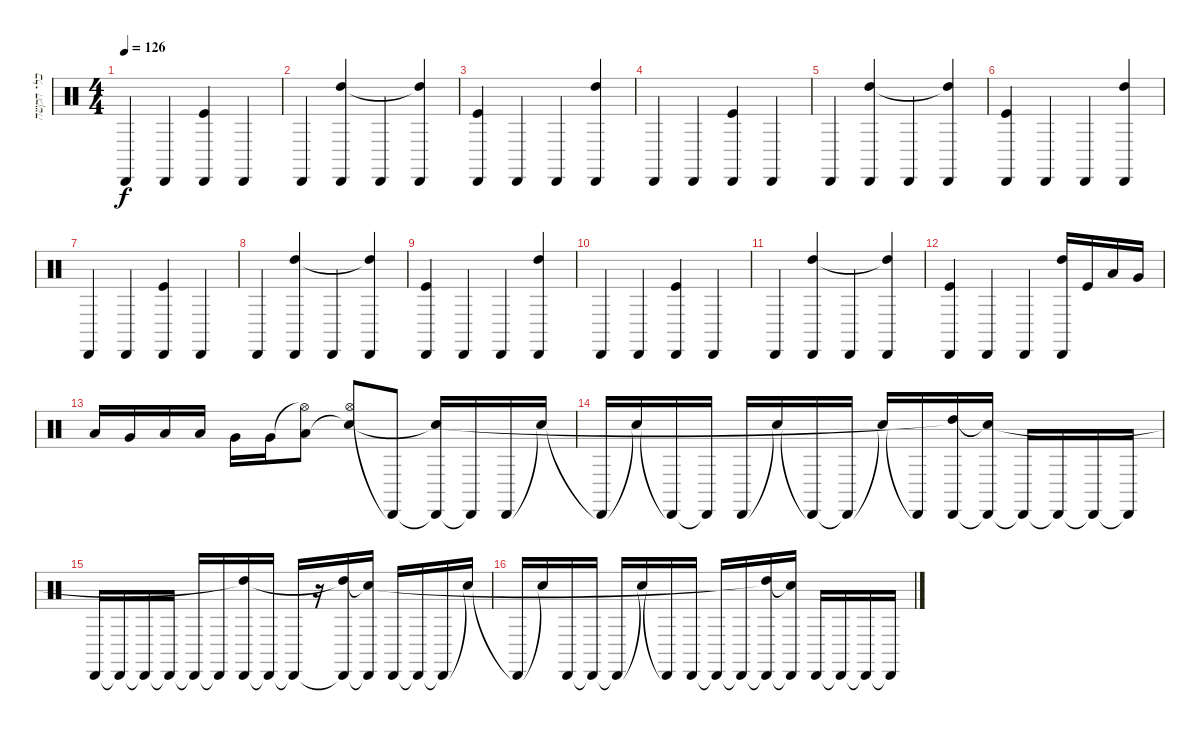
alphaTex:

\track ("כלי הקשה" "כלי הקשה") {instrument percussion}
\staff {score}
\articulation defaults
\ts (4 4)
\tempo 126
\clef neutral
\ks c "Cabasa (hit)".4{dy f} "Cabasa (hit)".4
("Cabasa (hit)" "Kick (hit)").4 "Cabasa (hit)".4 |
"Cabasa (hit)".4 ("Cabasa (hit)" "High Tom (hit)").4 "Cabasa (hit)".4 ("Cabasa (hit)" "High Tom (hit)"{t}).4 |
("Cabasa (hit)" "Kick (hit)").4 "Cabasa (hit)".4 "Cabasa (hit)".4 ("Cabasa (hit)" "High Tom (hit)").4 |
"Cabasa (hit)".4 "Cabasa (hit)".4 ("Cabasa (hit)" "Kick (hit)").4 "Cabasa (hit)".4 |
"Cabasa (hit)".4 ("Cabasa (hit)" "High Tom (hit)").4 "Cabasa (hit)".4 ("Cabasa (hit)" "High Tom (hit)"{t}).4 |
("Cabasa (hit)" "Kick (hit)").4 "Cabasa (hit)".4 "Cabasa (hit)".4 ("Cabasa (hit)" "High Tom (hit)").4 |
"Cabasa (hit)".4 "Cabasa (hit)".4 ("Cabasa (hit)" "Kick (hit)").4 "Cabasa (hit)".4 |
"Cabasa (hit)".4 ("Cabasa (hit)" "High Tom (hit)").4 "Cabasa (hit)".4 ("Cabasa (hit)" "High Tom (hit)"{t}).4 |
("Cabasa (hit)" "Kick (hit)").4 "Cabasa (hit)".4 "Cabasa (hit)".4 ("Cabasa (hit)" "High Tom (hit)").4 |
"Cabasa (hit)".4 "Cabasa (hit)".4 ("Cabasa (hit)" "Kick (hit)").4 "Cabasa (hit)".4 |
"Cabasa (hit)".4 ("Cabasa (hit)" "High Tom (hit)").4 "Cabasa (hit)".4 ("Cabasa (hit)" "High Tom (hit)"{t}).4 |
("Cabasa (hit)" "Kick (hit)").4 "Cabasa (hit)".4 "Cabasa (hit)".4 ("Cabasa (hit)" "High Tom (hit)").16 "Kick (hit)".16 "Low Tom (hit)".16 "Very Low Tom (hit)".16 |
"Low Tom (hit)".16 "Very Low Tom (hit)".16 "Low Floor Tom (hit)".16 "Low Floor Tom (hit)".16 "Very Low Tom (hit)".16 "Very Low Tom (hit)".16 ("Hi-Hat (open)"{t} "Low Floor Tom (hit)").8 ("Hi-Hat (open)" "Snare (hit)"{t}).8 "Cabasa (hit)"{t}.8 ("Cabasa (hit)"{t} "Snare (hit)"{t}).16 "Cabasa (hit)"{t}.16 "Cabasa (hit)".16 "Snare (hit)"{t}.16 |
"Cabasa (hit)"{t}.16 "Snare (hit)"{t}.16 "Cabasa (hit)"{t}.16 "Cabasa (hit)"{t}.16 "Cabasa (hit)".16 "Snare (hit)"{t}.16 "Cabasa (hit)"{t}.16 "Cabasa (hit)"{t}.16 "Snare (hit)"{t}.16 "Cabasa (hit)"{t}.16 ("Cabasa (hit)" "High Tom (hit)"{t}).16 ("Cabasa (hit)"{t} "Snare (hit)"{t}).16 "Cabasa (hit)"{t}.16 "Cabasa (hit)"{t}.16 "Cabasa (hit)"{t}.16 "Cabasa (hit)"{t}.16 |
"Cabasa (hit)".16 "Cabasa (hit)"{t}.16 "Cabasa (hit)"{t}.16 "Cabasa (hit)"{t}.16 "Cabasa (hit)"{t}.16 "Cabasa (hit)"{t}.16 ("Cabasa (hit)" "High Tom (hit)"{t}).16 "Cabasa (hit)"{t}.16 "Cabasa (hit)"{t}.16 r.16 ("Cabasa (hit)"{t} "High Tom (hit)"{t}).16 ("Cabasa (hit)"{t} "Snare (hit)"{t}).16 "Cabasa (hit)".16 "Cabasa (hit)"{t}.16 "Cabasa (hit)"{t}.16 "Snare (hit)"{t}.16 |
"Cabasa (hit)"{t}.16 "Snare (hit)"{t}.16 "Cabasa (hit)".16 "Cabasa (hit)"{t}.16 "Cabasa (hit)"{t}.16 "Snare (hit)"{t}.16 "Cabasa (hit)"{t}.16 "Cabasa (hit)".16 "Cabasa (hit)"{t}.16 "Cabasa (hit)"{t}.16 ("Cabasa (hit)"{t} "High Tom (hit)"{t}).16 ("Cabasa (hit)"{t} "Snare (hit)"{t}).16 "Cabasa (hit)".16 "Cabasa (hit)"{t}.16 "Cabasa (hit)"{t}.16 "Cabasa (hit)"{t}.16
